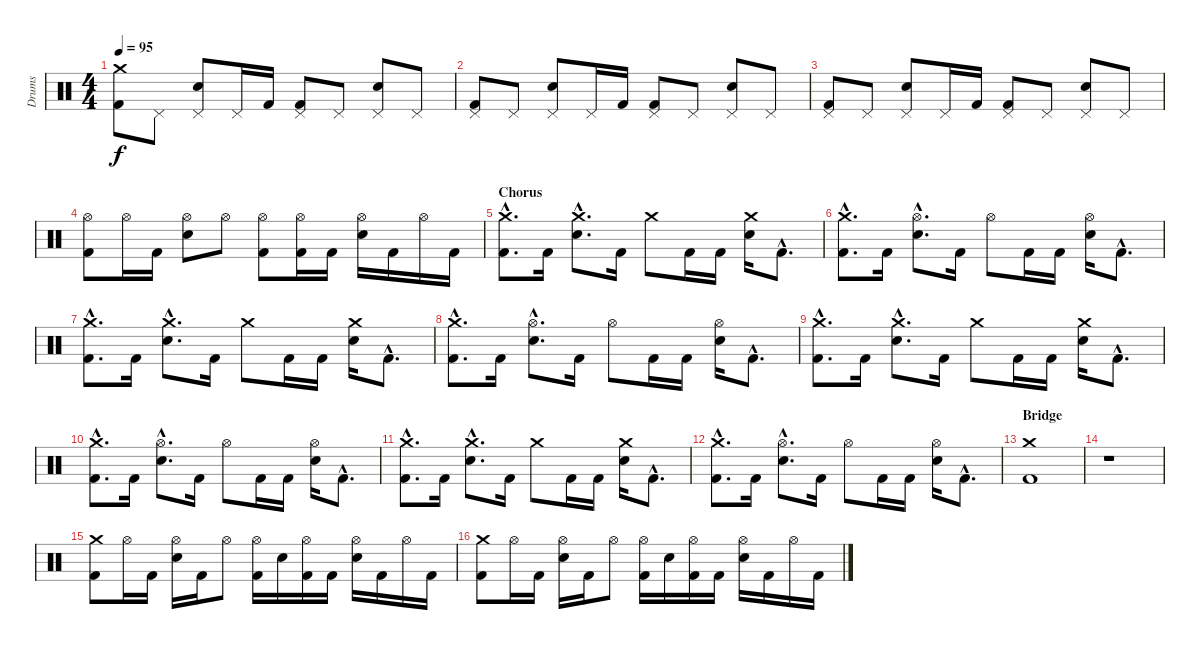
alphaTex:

\track ("Drums" "Drums") {instrument percussion}
\staff {score}
\articulation defaults
\ts (4 4)
\tempo 95
\clef neutral
\ks c
("Crash medium (hit)" "Kick (hit) 2").8{dy f} "Pedal Hi-Hat (hit)".8 ("Pedal Hi-Hat (hit)" "Electric Snare (hit)").8 "Pedal Hi-Hat (hit)".16 "Kick (hit) 2".16 ("Pedal Hi-Hat (hit)" "Kick (hit) 2").8 "Pedal Hi-Hat (hit)".8 ("Pedal Hi-Hat (hit)" "Electric Snare (hit)").8 "Pedal Hi-Hat (hit)".8 |
("Pedal Hi-Hat (hit)" "Kick (hit) 2").8 "Pedal Hi-Hat (hit)".8 ("Pedal Hi-Hat (hit)" "Electric Snare (hit)").8 "Pedal Hi-Hat (hit)".16 "Kick (hit) 2".16 ("Pedal Hi-Hat (hit)" "Kick (hit) 2").8 "Pedal Hi-Hat (hit)".8 ("Pedal Hi-Hat (hit)" "Electric Snare (hit)").8 "Pedal Hi-Hat (hit)".8 |
("Pedal Hi-Hat (hit)" "Kick (hit) 2").8 "Pedal Hi-Hat (hit)".8 ("Pedal Hi-Hat (hit)" "Electric Snare (hit)").8 "Pedal Hi-Hat (hit)".16 "Kick (hit) 2".16 ("Pedal Hi-Hat (hit)" "Kick (hit) 2").8 "Pedal Hi-Hat (hit)".8 ("Pedal Hi-Hat (hit)" "Electric Snare (hit)").8 "Pedal Hi-Hat (hit)".8 |
("Hi-Hat (open)" "Kick (hit) 2").8 "Hi-Hat (open)".16 "Kick (hit) 2".16 ("Hi-Hat (open)" "Electric Snare (hit)").8 "Hi-Hat (open)".8 ("Hi-Hat (open)" "Kick (hit) 2").8 ("Hi-Hat (open)" "Kick (hit) 2").16 "Kick (hit) 2".16 ("Hi-Hat (open)" "Electric Snare (hit)").16 "Kick (hit) 2".16 "Hi-Hat (open)".16 "Kick (hit) 2".16 |
\section ("" "Chorus")
("Crash medium (hit)"{hac} "Kick (hit) 2"{hac}).8{d} "Kick (hit) 2".16 ("Crash medium (hit)"{hac} "Electric Snare (hit)"{hac}).8{d} "Kick (hit) 2".16 "Crash medium (hit)".8 "Kick (hit) 2".16 "Kick (hit) 2".16 ("Crash medium (hit)" "Electric Snare (hit)").16 "Kick (hit) 2"{hac}.8{d} |
("Crash medium (hit)"{hac} "Kick (hit) 2"{hac}).8{d} "Kick (hit) 2".16 ("Hi-Hat (open)"{hac} "Electric Snare (hit)"{hac}).8{d} "Kick (hit) 2".16 "Hi-Hat (open)".8 "Kick (hit) 2".16 "Kick (hit) 2".16 ("Hi-Hat (open)" "Electric Snare (hit)").16 "Kick (hit) 2"{hac}.8{d} |
("Crash medium (hit)"{hac} "Kick (hit) 2"{hac}).8{d} "Kick (hit) 2".16 ("Crash medium (hit)"{hac} "Electric Snare (hit)"{hac}).8{d} "Kick (hit) 2".16 "Crash medium (hit)".8 "Kick (hit) 2".16 "Kick (hit) 2".16 ("Crash medium (hit)" "Electric Snare (hit)").16 "Kick (hit) 2"{hac}.8{d} |
("Crash medium (hit)"{hac} "Kick (hit) 2"{hac}).8{d} "Kick (hit) 2".16 ("Hi-Hat (open)"{hac} "Electric Snare (hit)"{hac}).8{d} "Kick (hit) 2".16 "Hi-Hat (open)".8 "Kick (hit) 2".16 "Kick (hit) 2".16 ("Hi-Hat (open)" "Electric Snare (hit)").16 "Kick (hit) 2"{hac}.8{d} |
("Crash medium (hit)"{hac} "Kick (hit) 2"{hac}).8{d} "Kick (hit) 2".16 ("Crash medium (hit)"{hac} "Electric Snare (hit)"{hac}).8{d} "Kick (hit) 2".16 "Crash medium (hit)".8 "Kick (hit) 2".16 "Kick (hit) 2".16 ("Crash medium (hit)" "Electric Snare (hit)").16 "Kick (hit) 2"{hac}.8{d} |
("Crash medium (hit)"{hac} "Kick (hit) 2"{hac}).8{d} "Kick (hit) 2".16 ("Hi-Hat (open)"{hac} "Electric Snare (hit)"{hac}).8{d} "Kick (hit) 2".16 "Hi-Hat (open)".8 "Kick (hit) 2".16 "Kick (hit) 2".16 ("Hi-Hat (open)" "Electric Snare (hit)").16 "Kick (hit) 2"{hac}.8{d} |
("Crash medium (hit)"{hac} "Kick (hit) 2"{hac}).8{d} "Kick (hit) 2".16 ("Crash medium (hit)"{hac} "Electric Snare (hit)"{hac}).8{d} "Kick (hit) 2".16 "Crash medium (hit)".8 "Kick (hit) 2".16 "Kick (hit) 2".16 ("Crash medium (hit)" "Electric Snare (hit)").16 "Kick (hit) 2"{hac}.8{d} |
("Crash medium (hit)"{hac} "Kick (hit) 2"{hac}).8{d} "Kick (hit) 2".16 ("Hi-Hat (open)"{hac} "Electric Snare (hit)"{hac}).8{d} "Kick (hit) 2".16 "Hi-Hat (open)".8 "Kick (hit) 2".16 "Kick (hit) 2".16 ("Hi-Hat (open)" "Electric Snare (hit)").16 "Kick (hit) 2"{hac}.8{d} |
\section ("" "Bridge")
("Crash medium (hit)" "Kick (hit) 2").1 |
r.1 |
("Crash medium (hit)" "Kick (hit) 2").8 "Hi-Hat (open)".16 "Kick (hit) 2".16 ("Hi-Hat (open)" "Electric Snare (hit)").16 "Kick (hit) 2".16 "Hi-Hat (open)".8 ("Hi-Hat (open)" "Kick (hit) 2").16 "Electric Snare (hit)".16 ("Hi-Hat (open)" "Kick (hit) 2").16 "Kick (hit) 2".16 ("Hi-Hat (open)" "Electric Snare (hit)").16 "Kick (hit) 2".16 "Hi-Hat (open)".16 "Kick (hit) 2".16 |
("Crash medium (hit)" "Kick (hit) 2").8 "Hi-Hat (open)".16 "Kick (hit) 2".16 ("Hi-Hat (open)" "Electric Snare (hit)").16 "Kick (hit) 2".16 "Hi-Hat (open)".8 ("Hi-Hat (open)" "Kick (hit) 2").16 "Electric Snare (hit)".16 ("Hi-Hat (open)" "Kick (hit) 2").16 "Kick (hit) 2".16 ("Hi-Hat (open)" "Electric Snare (hit)").16 "Kick (hit) 2".16 "Hi-Hat (open)".16 "Kick (hit) 2".16
